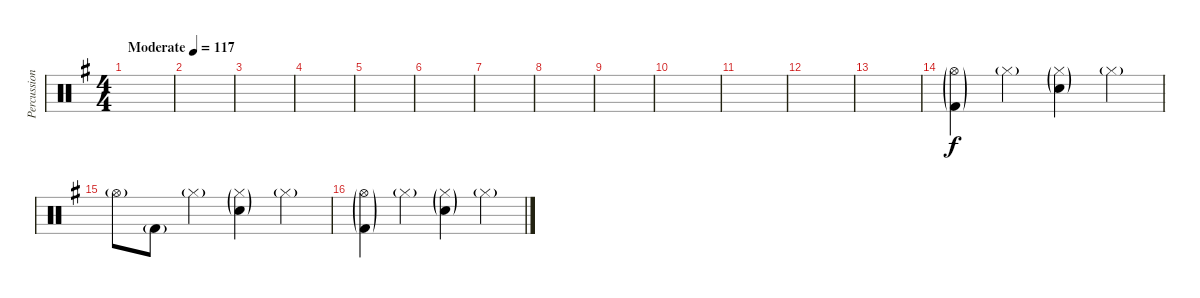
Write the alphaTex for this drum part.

\track ("Percussion" "Percussion") {instrument percussion}
\staff {score}
\articulation defaults
\ts (4 4)
\tempo (117 "Moderate")
\clef neutral
\ks g
|
|
|
|
|
|
|
|
|
|
|
|
|
("Hi-Hat (open)"{g} "Kick (hit) 2"{g}).4 "Hi-Hat (closed)"{g}.4 ("Hi-Hat (closed)"{g} "Electric Snare (hit)"{g}).4 "Hi-Hat (closed)"{g}.4 |
"Hi-Hat (open)"{g}.8 "Kick (hit) 2"{g}.8 "Hi-Hat (closed)"{g}.4 ("Hi-Hat (closed)"{g} "Electric Snare (hit)"{g}).4 "Hi-Hat (closed)"{g}.4 |
("Hi-Hat (open)"{g} "Kick (hit) 2"{g}).4 "Hi-Hat (closed)"{g}.4 ("Hi-Hat (closed)"{g} "Electric Snare (hit)"{g}).4 "Hi-Hat (closed)"{g}.4
